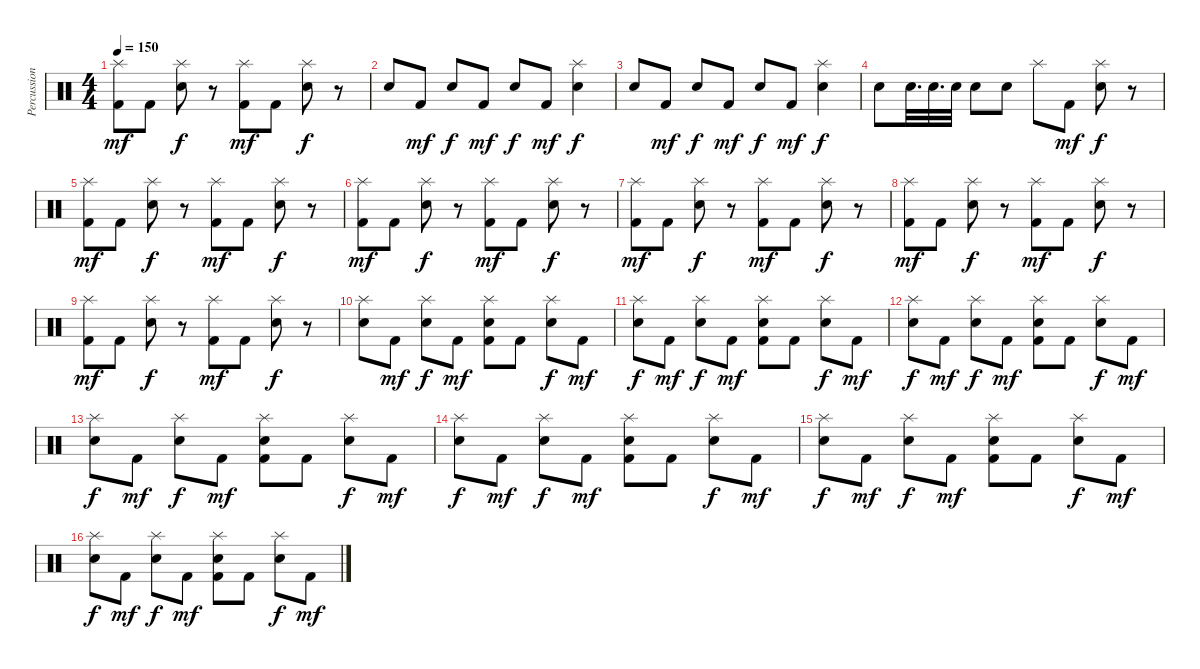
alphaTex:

\track ("Percussion" "Percussion") {instrument percussion}
\staff {score}
\articulation defaults
\ts (4 4)
\tempo 150
\clef neutral
\ks c
("Splash (hit)" "Kick (hit) 2").8{dy mf} "Kick (hit) 2".8 ("Splash (hit)" "Snare (hit) 2").8{dy f} r.8 ("Splash (hit)" "Kick (hit) 2").8{dy mf} "Kick (hit) 2".8 ("Splash (hit)" "Snare (hit) 2").8{dy f} r.8 |
"Snare (hit) 2".8 "Kick (hit) 2".8{dy mf} "Snare (hit) 2".8{dy f} "Kick (hit) 2".8{dy mf} "Snare (hit) 2".8{dy f} "Kick (hit) 2".8{dy mf} ("Splash (hit)" "Snare (hit) 2").4{dy f} |
"Snare (hit) 2".8 "Kick (hit) 2".8{dy mf} "Snare (hit) 2".8{dy f} "Kick (hit) 2".8{dy mf} "Snare (hit) 2".8{dy f} "Kick (hit) 2".8{dy mf} ("Splash (hit)" "Snare (hit) 2").4{dy f} |
"Snare (hit) 2".8 "Snare (hit) 2".32{d} "Snare (hit) 2".32{d} "Snare (hit) 2".32 "Snare (hit) 2".8 "Snare (hit) 2".8 "Splash (hit)".8 "Kick (hit) 2".8{dy mf} ("Splash (hit)" "Snare (hit) 2").8{dy f} r.8 |
("Splash (hit)" "Kick (hit) 2").8{dy mf} "Kick (hit) 2".8 ("Splash (hit)" "Snare (hit) 2").8{dy f} r.8 ("Splash (hit)" "Kick (hit) 2").8{dy mf} "Kick (hit) 2".8 ("Splash (hit)" "Snare (hit) 2").8{dy f} r.8 |
("Splash (hit)" "Kick (hit) 2").8{dy mf} "Kick (hit) 2".8 ("Splash (hit)" "Snare (hit) 2").8{dy f} r.8 ("Splash (hit)" "Kick (hit) 2").8{dy mf} "Kick (hit) 2".8 ("Splash (hit)" "Snare (hit) 2").8{dy f} r.8 |
("Splash (hit)" "Kick (hit) 2").8{dy mf} "Kick (hit) 2".8 ("Splash (hit)" "Snare (hit) 2").8{dy f} r.8 ("Splash (hit)" "Kick (hit) 2").8{dy mf} "Kick (hit) 2".8 ("Splash (hit)" "Snare (hit) 2").8{dy f} r.8 |
("Splash (hit)" "Kick (hit) 2").8{dy mf} "Kick (hit) 2".8 ("Splash (hit)" "Snare (hit) 2").8{dy f} r.8 ("Splash (hit)" "Kick (hit) 2").8{dy mf} "Kick (hit) 2".8 ("Splash (hit)" "Snare (hit) 2").8{dy f} r.8 |
("Splash (hit)" "Kick (hit) 2").8{dy mf} "Kick (hit) 2".8 ("Splash (hit)" "Snare (hit) 2").8{dy f} r.8 ("Splash (hit)" "Kick (hit) 2").8{dy mf} "Kick (hit) 2".8 ("Splash (hit)" "Snare (hit) 2").8{dy f} r.8 |
("Splash (hit)" "Snare (hit) 2").8 "Kick (hit) 2".8{dy mf} ("Splash (hit)" "Snare (hit) 2").8{dy f} "Kick (hit) 2".8{dy mf} ("Splash (hit)" "Snare (hit) 2" "Kick (hit) 2").8 "Kick (hit) 2".8 ("Splash (hit)" "Snare (hit) 2").8{dy f} "Kick (hit) 2".8{dy mf} |
("Splash (hit)" "Snare (hit) 2").8{dy f} "Kick (hit) 2".8{dy mf} ("Splash (hit)" "Snare (hit) 2").8{dy f} "Kick (hit) 2".8{dy mf} ("Splash (hit)" "Snare (hit) 2" "Kick (hit) 2").8 "Kick (hit) 2".8 ("Splash (hit)" "Snare (hit) 2").8{dy f} "Kick (hit) 2".8{dy mf} |
("Splash (hit)" "Snare (hit) 2").8{dy f} "Kick (hit) 2".8{dy mf} ("Splash (hit)" "Snare (hit) 2").8{dy f} "Kick (hit) 2".8{dy mf} ("Splash (hit)" "Snare (hit) 2" "Kick (hit) 2").8 "Kick (hit) 2".8 ("Splash (hit)" "Snare (hit) 2").8{dy f} "Kick (hit) 2".8{dy mf} |
("Splash (hit)" "Snare (hit) 2").8{dy f} "Kick (hit) 2".8{dy mf} ("Splash (hit)" "Snare (hit) 2").8{dy f} "Kick (hit) 2".8{dy mf} ("Splash (hit)" "Snare (hit) 2" "Kick (hit) 2").8 "Kick (hit) 2".8 ("Splash (hit)" "Snare (hit) 2").8{dy f} "Kick (hit) 2".8{dy mf} |
("Splash (hit)" "Snare (hit) 2").8{dy f} "Kick (hit) 2".8{dy mf} ("Splash (hit)" "Snare (hit) 2").8{dy f} "Kick (hit) 2".8{dy mf} ("Splash (hit)" "Snare (hit) 2" "Kick (hit) 2").8 "Kick (hit) 2".8 ("Splash (hit)" "Snare (hit) 2").8{dy f} "Kick (hit) 2".8{dy mf} |
("Splash (hit)" "Snare (hit) 2").8{dy f} "Kick (hit) 2".8{dy mf} ("Splash (hit)" "Snare (hit) 2").8{dy f} "Kick (hit) 2".8{dy mf} ("Splash (hit)" "Snare (hit) 2" "Kick (hit) 2").8 "Kick (hit) 2".8 ("Splash (hit)" "Snare (hit) 2").8{dy f} "Kick (hit) 2".8{dy mf} |
("Splash (hit)" "Snare (hit) 2").8{dy f} "Kick (hit) 2".8{dy mf} ("Splash (hit)" "Snare (hit) 2").8{dy f} "Kick (hit) 2".8{dy mf} ("Splash (hit)" "Snare (hit) 2" "Kick (hit) 2").8 "Kick (hit) 2".8 ("Splash (hit)" "Snare (hit) 2").8{dy f} "Kick (hit) 2".8{dy mf}
